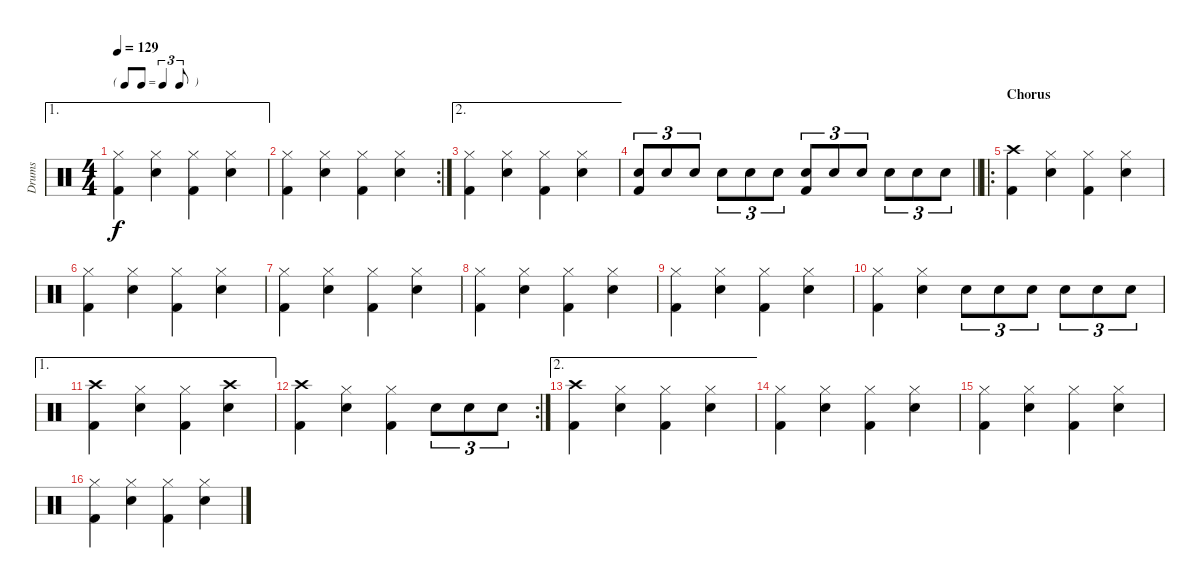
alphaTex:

\track ("Drums" "Drums") {instrument percussion}
\staff {score}
\articulation defaults
\ae 1
\ts (4 4)
\tf triplet8th
\tempo 129
\clef neutral
\ks c
("Kick (hit) 2" "Hi-Hat (closed)").4{dy f} ("Snare (hit) 2" "Hi-Hat (closed)").4 ("Kick (hit) 2" "Hi-Hat (closed)").4 ("Snare (hit) 2" "Hi-Hat (closed)").4 |
\rc 2
("Kick (hit) 2" "Hi-Hat (closed)").4 ("Snare (hit) 2" "Hi-Hat (closed)").4 ("Kick (hit) 2" "Hi-Hat (closed)").4 ("Snare (hit) 2" "Hi-Hat (closed)").4 |
\ae 2
("Kick (hit) 2" "Hi-Hat (closed)").4 ("Snare (hit) 2" "Hi-Hat (closed)").4 ("Kick (hit) 2" "Hi-Hat (closed)").4 ("Snare (hit) 2" "Hi-Hat (closed)").4 |
\barLineRight lightlight
("Kick (hit) 2" "Snare (hit) 2").8{tu (3 2)} "Snare (hit) 2".8{tu (3 2)} "Snare (hit) 2".8{tu (3 2)} "Snare (hit) 2".8{tu (3 2)} "Snare (hit) 2".8{tu (3 2)} "Snare (hit) 2".8{tu (3 2)} ("Kick (hit) 2" "Snare (hit) 2").8{tu (3 2)} "Snare (hit) 2".8{tu (3 2)} "Snare (hit) 2".8{tu (3 2)} "Snare (hit) 2".8{tu (3 2)} "Snare (hit) 2".8{tu (3 2)} "Snare (hit) 2".8{tu (3 2)} |
\ro
\section ("" "Chorus")
("Kick (hit) 2" "Crash high (hit)").4 ("Snare (hit) 2" "Hi-Hat (closed)").4 ("Kick (hit) 2" "Hi-Hat (closed)").4 ("Snare (hit) 2" "Hi-Hat (closed)").4 |
("Kick (hit) 2" "Hi-Hat (closed)").4 ("Snare (hit) 2" "Hi-Hat (closed)").4 ("Kick (hit) 2" "Hi-Hat (closed)").4 ("Snare (hit) 2" "Hi-Hat (closed)").4 |
("Kick (hit) 2" "Hi-Hat (closed)").4 ("Snare (hit) 2" "Hi-Hat (closed)").4 ("Kick (hit) 2" "Hi-Hat (closed)").4 ("Snare (hit) 2" "Hi-Hat (closed)").4 |
("Kick (hit) 2" "Hi-Hat (closed)").4 ("Snare (hit) 2" "Hi-Hat (closed)").4 ("Kick (hit) 2" "Hi-Hat (closed)").4 ("Snare (hit) 2" "Hi-Hat (closed)").4 |
("Kick (hit) 2" "Hi-Hat (closed)").4 ("Snare (hit) 2" "Hi-Hat (closed)").4 ("Kick (hit) 2" "Hi-Hat (closed)").4 ("Snare (hit) 2" "Hi-Hat (closed)").4 |
("Kick (hit) 2" "Hi-Hat (closed)").4 ("Snare (hit) 2" "Hi-Hat (closed)").4 "Snare (hit) 2".8{tu (3 2)} "Snare (hit) 2".8{tu (3 2)} "Snare (hit) 2".8{tu (3 2)} "Snare (hit) 2".8{tu (3 2)} "Snare (hit) 2".8{tu (3 2)} "Snare (hit) 2".8{tu (3 2)} |
\ae 1
("Kick (hit) 2" "Crash high (hit)").4 ("Snare (hit) 2" "Hi-Hat (closed)").4 ("Kick (hit) 2" "Hi-Hat (closed)").4 ("Crash high (hit)" "Snare (hit) 2").4 |
\rc 2
("Kick (hit) 2" "Crash high (hit)").4 ("Snare (hit) 2" "Hi-Hat (closed)").4 ("Kick (hit) 2" "Hi-Hat (closed)").4 "Snare (hit) 2".8{tu (3 2)} "Snare (hit) 2".8{tu (3 2)} "Snare (hit) 2".8{tu (3 2)} |
\ae 2
("Kick (hit) 2" "Crash high (hit)").4 ("Snare (hit) 2" "Hi-Hat (closed)").4 ("Kick (hit) 2" "Hi-Hat (closed)").4 ("Snare (hit) 2" "Hi-Hat (closed)").4 |
("Kick (hit) 2" "Hi-Hat (closed)").4 ("Snare (hit) 2" "Hi-Hat (closed)").4 ("Kick (hit) 2" "Hi-Hat (closed)").4 ("Snare (hit) 2" "Hi-Hat (closed)").4 |
("Kick (hit) 2" "Hi-Hat (closed)").4 ("Snare (hit) 2" "Hi-Hat (closed)").4 ("Kick (hit) 2" "Hi-Hat (closed)").4 ("Snare (hit) 2" "Hi-Hat (closed)").4 |
("Kick (hit) 2" "Hi-Hat (closed)").4 ("Snare (hit) 2" "Hi-Hat (closed)").4 ("Kick (hit) 2" "Hi-Hat (closed)").4 ("Snare (hit) 2" "Hi-Hat (closed)").4
